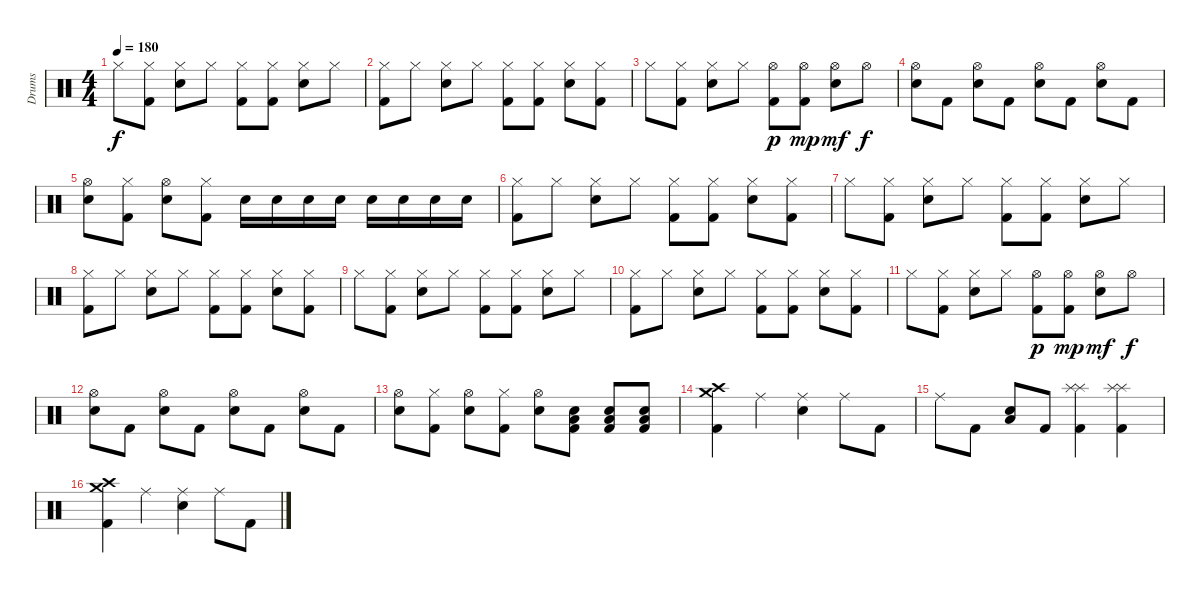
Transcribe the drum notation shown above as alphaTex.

\track ("Drums" "Drums") {instrument percussion}
\staff {score}
\articulation defaults
\ts (4 4)
\tempo 180
\clef neutral
\ks c "Hi-Hat (closed)".8{dy f}
("Hi-Hat (closed)" "Kick (hit) 2").8 ("Hi-Hat (closed)" "Electric Snare (hit)").8 "Hi-Hat (closed)".8 ("Hi-Hat (closed)" "Kick (hit) 2").8 ("Hi-Hat (closed)" "Kick (hit) 2").8 ("Hi-Hat (closed)" "Electric Snare (hit)").8 "Hi-Hat (closed)".8 |
("Hi-Hat (closed)" "Kick (hit) 2").8 "Hi-Hat (closed)".8 ("Hi-Hat (closed)" "Electric Snare (hit)").8 "Hi-Hat (closed)".8 ("Hi-Hat (closed)" "Kick (hit) 2").8 ("Hi-Hat (closed)" "Kick (hit) 2").8 ("Hi-Hat (closed)" "Electric Snare (hit)").8 ("Hi-Hat (closed)" "Kick (hit) 2").8 |
"Hi-Hat (closed)".8 ("Hi-Hat (closed)" "Kick (hit) 2").8 ("Hi-Hat (closed)" "Electric Snare (hit)").8 "Hi-Hat (closed)".8 ("Hi-Hat (open)" "Kick (hit) 2").8{dy p} ("Hi-Hat (open)" "Kick (hit) 2").8{dy mp} ("Hi-Hat (open)" "Electric Snare (hit)").8{dy mf} "Hi-Hat (open)".8{dy f} |
("Hi-Hat (open)" "Electric Snare (hit)").8 "Kick (hit) 2".8 ("Hi-Hat (open)" "Electric Snare (hit)").8 "Kick (hit) 2".8 ("Hi-Hat (open)" "Electric Snare (hit)").8 "Kick (hit) 2".8 ("Hi-Hat (open)" "Electric Snare (hit)").8 "Kick (hit) 2".8 |
("Hi-Hat (open)" "Electric Snare (hit)").8 ("Hi-Hat (closed)" "Kick (hit) 2").8 ("Hi-Hat (open)" "Electric Snare (hit)").8 ("Hi-Hat (closed)" "Kick (hit) 2").8 "Electric Snare (hit)".16 "Electric Snare (hit)".16 "Electric Snare (hit)".16 "Electric Snare (hit)".16 "Electric Snare (hit)".16 "Electric Snare (hit)".16 "Electric Snare (hit)".16 "Electric Snare (hit)".16 |
("Hi-Hat (closed)" "Kick (hit) 2").8 "Hi-Hat (closed)".8 ("Hi-Hat (closed)" "Electric Snare (hit)").8 "Hi-Hat (closed)".8 ("Hi-Hat (closed)" "Kick (hit) 2").8 ("Hi-Hat (closed)" "Kick (hit) 2").8 ("Hi-Hat (closed)" "Electric Snare (hit)").8 ("Hi-Hat (closed)" "Kick (hit) 2").8 |
"Hi-Hat (closed)".8 ("Hi-Hat (closed)" "Kick (hit) 2").8 ("Hi-Hat (closed)" "Electric Snare (hit)").8 "Hi-Hat (closed)".8 ("Hi-Hat (closed)" "Kick (hit) 2").8 ("Hi-Hat (closed)" "Kick (hit) 2").8 ("Hi-Hat (closed)" "Electric Snare (hit)").8 "Hi-Hat (closed)".8 |
("Hi-Hat (closed)" "Kick (hit) 2").8 "Hi-Hat (closed)".8 ("Hi-Hat (closed)" "Electric Snare (hit)").8 "Hi-Hat (closed)".8 ("Hi-Hat (closed)" "Kick (hit) 2").8 ("Hi-Hat (closed)" "Kick (hit) 2").8 ("Hi-Hat (closed)" "Electric Snare (hit)").8 ("Hi-Hat (closed)" "Kick (hit) 2").8 |
"Hi-Hat (closed)".8 ("Hi-Hat (closed)" "Kick (hit) 2").8 ("Hi-Hat (closed)" "Electric Snare (hit)").8 "Hi-Hat (closed)".8 ("Hi-Hat (closed)" "Kick (hit) 2").8 ("Hi-Hat (closed)" "Kick (hit) 2").8 ("Hi-Hat (closed)" "Electric Snare (hit)").8 "Hi-Hat (closed)".8 |
("Hi-Hat (closed)" "Kick (hit) 2").8 "Hi-Hat (closed)".8 ("Hi-Hat (closed)" "Electric Snare (hit)").8 "Hi-Hat (closed)".8 ("Hi-Hat (closed)" "Kick (hit) 2").8 ("Hi-Hat (closed)" "Kick (hit) 2").8 ("Hi-Hat (closed)" "Electric Snare (hit)").8 ("Hi-Hat (closed)" "Kick (hit) 2").8 |
"Hi-Hat (closed)".8 ("Hi-Hat (closed)" "Kick (hit) 2").8 ("Hi-Hat (closed)" "Electric Snare (hit)").8 "Hi-Hat (closed)".8 ("Hi-Hat (open)" "Kick (hit) 2").8{dy p} ("Hi-Hat (open)" "Kick (hit) 2").8{dy mp} ("Hi-Hat (open)" "Electric Snare (hit)").8{dy mf} "Hi-Hat (open)".8{dy f} |
("Hi-Hat (open)" "Electric Snare (hit)").8 "Kick (hit) 2".8 ("Hi-Hat (open)" "Electric Snare (hit)").8 "Kick (hit) 2".8 ("Hi-Hat (open)" "Electric Snare (hit)").8 "Kick (hit) 2".8 ("Hi-Hat (open)" "Electric Snare (hit)").8 "Kick (hit) 2".8 |
("Hi-Hat (open)" "Electric Snare (hit)").8 ("Hi-Hat (closed)" "Kick (hit) 2").8 ("Hi-Hat (open)" "Electric Snare (hit)").8 ("Hi-Hat (closed)" "Kick (hit) 2").8 ("Hi-Hat (open)" "Electric Snare (hit)").8 ("Low Tom (hit)" "Electric Snare (hit)" "Kick (hit) 2").8 ("Low Tom (hit)" "Electric Snare (hit)" "Kick (hit) 2").8 ("Low Tom (hit)" "Electric Snare (hit)" "Kick (hit) 2").8 |
("Crash high (hit)" "Crash medium (hit)" "Kick (hit) 2").4 "Ride (middle)".4 ("Ride (middle)" "Electric Snare (hit)").4 "Ride (middle)".8 "Kick (hit) 2".8 |
"Ride (middle)".8 "Kick (hit) 2".8 ("Low Floor Tom (hit)" "Electric Snare (hit)").8 "Kick (hit) 2".8 ("Splash (hit)" "Splash (hit)" "Kick (hit) 2").4 ("Splash (hit)" "Splash (hit)" "Kick (hit) 2").4 |
("Crash high (hit)" "Crash medium (hit)" "Kick (hit) 2").4 "Ride (middle)".4 ("Ride (middle)" "Electric Snare (hit)").4 "Ride (middle)".8 "Kick (hit) 2".8
